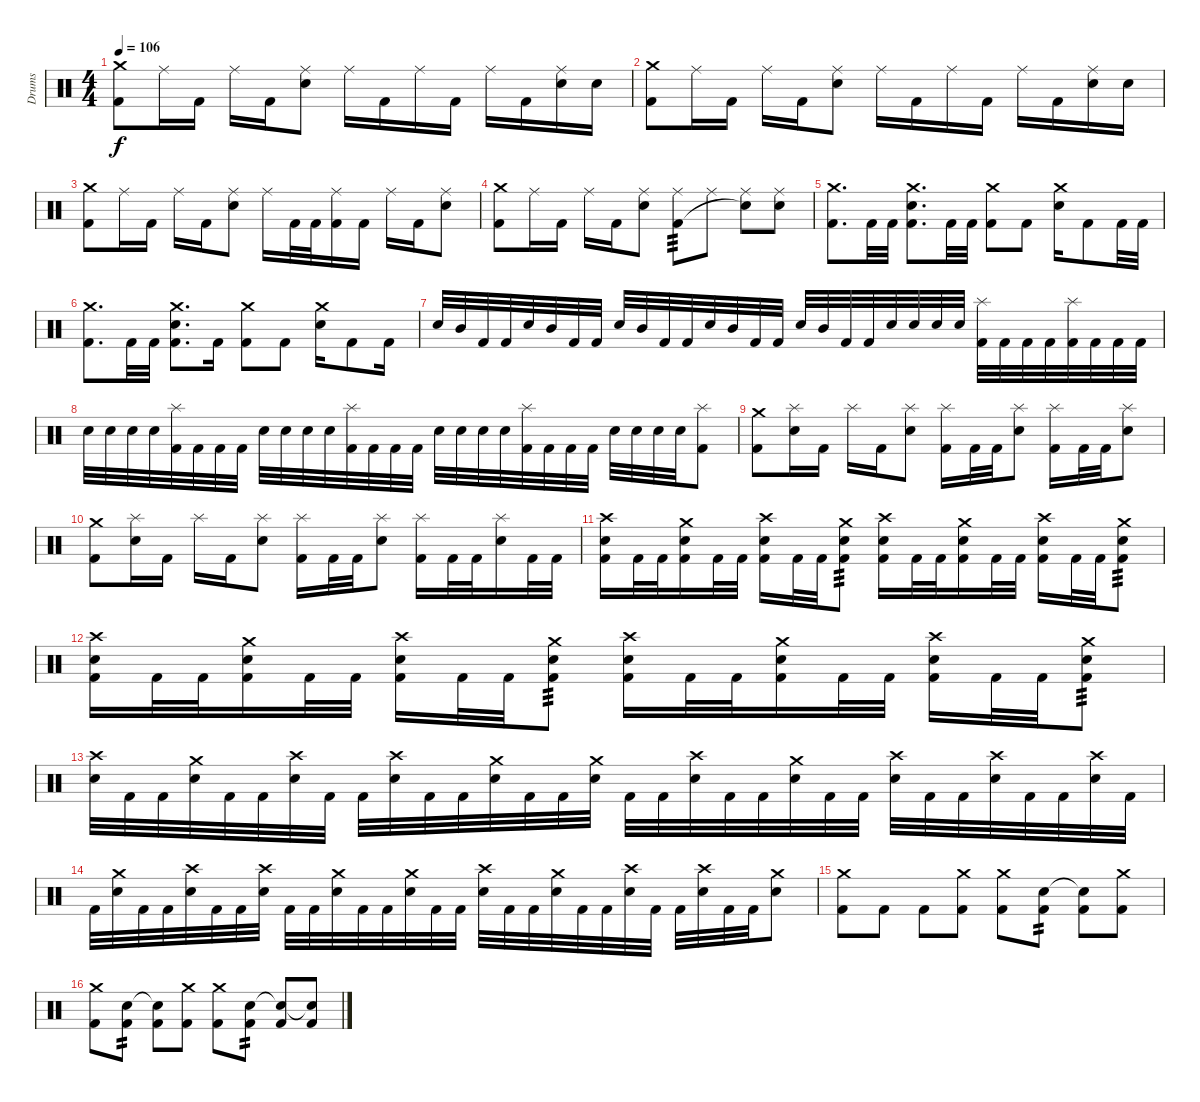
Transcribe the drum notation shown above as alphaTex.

\track ("Drums" "Drums") {instrument percussion}
\staff {score}
\articulation defaults
\ts (4 4)
\tempo 106
\clef neutral
\ks c
("Crash medium (hit)" "Kick (hit) 2").8{dy f} "Ride (middle)".16 "Kick (hit) 2".16 "Ride (middle)".16 "Kick (hit) 2".16 ("Ride (middle)" "Snare (hit) 2").8 "Ride (middle)".16 "Kick (hit) 2".16 "Ride (middle)".16 "Kick (hit) 2".16 "Ride (middle)".16 "Kick (hit) 2".16 ("Ride (middle)" "Snare (hit) 2").16 "Snare (hit) 2".16 |
("Crash medium (hit)" "Kick (hit) 2").8 "Ride (middle)".16 "Kick (hit) 2".16 "Ride (middle)".16 "Kick (hit) 2".16 ("Ride (middle)" "Snare (hit) 2").8 "Ride (middle)".16 "Kick (hit) 2".16 "Ride (middle)".16 "Kick (hit) 2".16 "Ride (middle)".16 "Kick (hit) 2".16 ("Ride (middle)" "Snare (hit) 2").16 "Snare (hit) 2".16 |
("Crash medium (hit)" "Kick (hit) 2").8 "Ride (middle)".16 "Kick (hit) 2".16 "Ride (middle)".16 "Kick (hit) 2".16 ("Ride (middle)" "Snare (hit) 2").8 "Ride (middle)".16 "Kick (hit) 2".32 "Kick (hit) 2".32 ("Ride (middle)" "Kick (hit) 2").16 "Kick (hit) 2".16 "Ride (middle)".16 "Kick (hit) 2".16 ("Ride (middle)" "Snare (hit) 2").8 |
("Crash medium (hit)" "Kick (hit) 2").8 "Ride (middle)".16 "Kick (hit) 2".16 "Ride (middle)".16 "Kick (hit) 2".16 ("Ride (middle)" "Snare (hit) 2").8 ("Ride (middle)" "Kick (hit) 2").8{tp 3} "Ride (middle)".8 ("Ride (middle)" "Snare (hit)"{t}).8 ("Ride (middle)" "Snare (hit) 2").8 |
("Crash medium (hit)" "Kick (hit) 2").8{d} "Kick (hit) 2".32 "Kick (hit) 2".32 ("Crash medium (hit)" "Snare (hit) 2" "Kick (hit) 2").8{d} "Kick (hit) 2".32 "Kick (hit) 2".32 ("Crash medium (hit)" "Kick (hit) 2").8 "Kick (hit) 2".8 ("Crash medium (hit)" "Snare (hit) 2").16 "Kick (hit) 2".8 "Kick (hit) 2".32 "Kick (hit) 2".32 |
("Crash medium (hit)" "Kick (hit) 2").8{d} "Kick (hit) 2".32 "Kick (hit) 2".32 ("Crash medium (hit)" "Snare (hit) 2" "Kick (hit) 2").8{d} "Kick (hit) 2".16 ("Crash medium (hit)" "Kick (hit) 2").8 "Kick (hit) 2".8 ("Crash medium (hit)" "Snare (hit) 2").16 "Kick (hit) 2".8 "Kick (hit) 2".16 |
"Snare (hit) 2".32 "Mid Tom (hit)".32 "Kick (hit) 2".32 "Kick (hit) 2".32 "Snare (hit) 2".32 "Mid Tom (hit)".32 "Kick (hit) 2".32 "Kick (hit) 2".32 "Snare (hit) 2".32 "Mid Tom (hit)".32 "Kick (hit) 2".32 "Kick (hit) 2".32 "Snare (hit) 2".32 "Mid Tom (hit)".32 "Kick (hit) 2".32 "Kick (hit) 2".32 "Snare (hit) 2".32 "Mid Tom (hit)".32 "Kick (hit) 2".32 "Kick (hit) 2".32 "Snare (hit) 2".32 "Snare (hit) 2".32 "Snare (hit) 2".32 "Snare (hit) 2".32 ("Splash (hit)" "Kick (hit) 2").32 "Kick (hit) 2".32 "Kick (hit) 2".32 "Kick (hit) 2".32 ("Splash (hit)" "Kick (hit) 2").32 "Kick (hit) 2".32 "Kick (hit) 2".32 "Kick (hit) 2".32 |
"Snare (hit) 2".32 "Snare (hit) 2".32 "Snare (hit) 2".32 "Snare (hit) 2".32 ("Splash (hit)" "Kick (hit) 2").32 "Kick (hit) 2".32 "Kick (hit) 2".32 "Kick (hit) 2".32 "Snare (hit) 2".32 "Snare (hit) 2".32 "Snare (hit) 2".32 "Snare (hit) 2".32 ("Splash (hit)" "Kick (hit) 2").32 "Kick (hit) 2".32 "Kick (hit) 2".32 "Kick (hit) 2".32 "Snare (hit) 2".32 "Snare (hit) 2".32 "Snare (hit) 2".32 "Snare (hit) 2".32 ("Splash (hit)" "Kick (hit) 2").32 "Kick (hit) 2".32 "Kick (hit) 2".32 "Kick (hit) 2".32 "Snare (hit) 2".32 "Snare (hit) 2".32 "Snare (hit) 2".32 "Snare (hit) 2".32 ("Splash (hit)" "Kick (hit) 2").8 |
("Crash medium (hit)" "Kick (hit) 2").8 ("Splash (hit)" "Snare (hit) 2").16 "Kick (hit) 2".16 "Splash (hit)".16 "Kick (hit) 2".16 ("Splash (hit)" "Snare (hit) 2").8 ("Splash (hit)" "Kick (hit) 2").16 "Kick (hit) 2".32 "Kick (hit) 2".32 ("Splash (hit)" "Snare (hit) 2").8 ("Splash (hit)" "Kick (hit) 2").16 "Kick (hit) 2".32 "Kick (hit) 2".32 ("Splash (hit)" "Snare (hit) 2").8 |
("Crash medium (hit)" "Kick (hit) 2").8 ("Splash (hit)" "Snare (hit) 2").16 "Kick (hit) 2".16 "Splash (hit)".16 "Kick (hit) 2".16 ("Splash (hit)" "Snare (hit) 2").8 ("Splash (hit)" "Kick (hit) 2").16 "Kick (hit) 2".32 "Kick (hit) 2".32 ("Splash (hit)" "Snare (hit) 2").8 ("Splash (hit)" "Kick (hit) 2").16 "Kick (hit) 2".32 "Kick (hit) 2".32 ("Splash (hit)" "Snare (hit) 2").16 "Kick (hit) 2".32 "Kick (hit) 2".32 |
("Crash high (hit)" "Snare (hit) 2" "Kick (hit) 2").16 "Kick (hit) 2".32 "Kick (hit) 2".32 ("Crash medium (hit)" "Snare (hit) 2" "Kick (hit) 2").16 "Kick (hit) 2".32 "Kick (hit) 2".32 ("Crash high (hit)" "Snare (hit) 2" "Kick (hit) 2").16 "Kick (hit) 2".32 "Kick (hit) 2".32 ("Crash medium (hit)" "Snare (hit) 2" "Kick (hit) 2").8{tp 3} ("Crash high (hit)" "Snare (hit) 2" "Kick (hit) 2").16 "Kick (hit) 2".32 "Kick (hit) 2".32 ("Crash medium (hit)" "Snare (hit) 2" "Kick (hit) 2").16 "Kick (hit) 2".32 "Kick (hit) 2".32 ("Crash high (hit)" "Snare (hit) 2" "Kick (hit) 2").16 "Kick (hit) 2".32 "Kick (hit) 2".32 ("Crash medium (hit)" "Snare (hit) 2" "Kick (hit) 2").8{tp 3} |
("Crash high (hit)" "Snare (hit) 2" "Kick (hit) 2").16 "Kick (hit) 2".32 "Kick (hit) 2".32 ("Crash medium (hit)" "Snare (hit) 2" "Kick (hit) 2").16 "Kick (hit) 2".32 "Kick (hit) 2".32 ("Crash high (hit)" "Snare (hit) 2" "Kick (hit) 2").16 "Kick (hit) 2".32 "Kick (hit) 2".32 ("Crash medium (hit)" "Snare (hit) 2" "Kick (hit) 2").8{tp 3} ("Crash high (hit)" "Snare (hit) 2" "Kick (hit) 2").16 "Kick (hit) 2".32 "Kick (hit) 2".32 ("Crash medium (hit)" "Snare (hit) 2" "Kick (hit) 2").16 "Kick (hit) 2".32 "Kick (hit) 2".32 ("Crash high (hit)" "Snare (hit) 2" "Kick (hit) 2").16 "Kick (hit) 2".32 "Kick (hit) 2".32 ("Crash medium (hit)" "Snare (hit) 2" "Kick (hit) 2").8{tp 3} |
("Crash high (hit)" "Snare (hit) 2").32 "Kick (hit) 2".32 "Kick (hit) 2".32 ("Crash medium (hit)" "Snare (hit) 2").32 "Kick (hit) 2".32 "Kick (hit) 2".32 ("Crash high (hit)" "Snare (hit) 2").32 "Kick (hit) 2".32 "Kick (hit) 2".32 ("Crash high (hit)" "Snare (hit) 2").32 "Kick (hit) 2".32 "Kick (hit) 2".32 ("Crash medium (hit)" "Snare (hit) 2").32 "Kick (hit) 2".32 "Kick (hit) 2".32 ("Crash medium (hit)" "Snare (hit) 2").32 "Kick (hit) 2".32 "Kick (hit) 2".32 ("Crash high (hit)" "Snare (hit) 2").32 "Kick (hit) 2".32 "Kick (hit) 2".32 ("Crash medium (hit)" "Snare (hit) 2").32 "Kick (hit) 2".32 "Kick (hit) 2".32 ("Crash high (hit)" "Snare (hit) 2").32 "Kick (hit) 2".32 "Kick (hit) 2".32 ("Crash high (hit)" "Snare (hit) 2").32 "Kick (hit) 2".32 "Kick (hit) 2".32 ("Crash high (hit)" "Snare (hit) 2").32 "Kick (hit) 2".32 |
"Kick (hit) 2".32 ("Crash medium (hit)" "Snare (hit) 2").32 "Kick (hit) 2".32 "Kick (hit) 2".32 ("Crash high (hit)" "Snare (hit) 2").32 "Kick (hit) 2".32 "Kick (hit) 2".32 ("Crash high (hit)" "Snare (hit) 2").32 "Kick (hit) 2".32 "Kick (hit) 2".32 ("Crash medium (hit)" "Snare (hit) 2").32 "Kick (hit) 2".32 "Kick (hit) 2".32 ("Crash medium (hit)" "Snare (hit) 2").32 "Kick (hit) 2".32 "Kick (hit) 2".32 ("Crash high (hit)" "Snare (hit) 2").32 "Kick (hit) 2".32 "Kick (hit) 2".32 ("Crash medium (hit)" "Snare (hit) 2").32 "Kick (hit) 2".32 "Kick (hit) 2".32 ("Crash high (hit)" "Snare (hit) 2").32 "Kick (hit) 2".32 "Kick (hit) 2".32 ("Crash high (hit)" "Snare (hit) 2").32 "Kick (hit) 2".32 "Kick (hit) 2".32 ("Crash medium (hit)" "Snare (hit) 2").8 |
("Crash medium (hit)" "Kick (hit) 2").8 "Kick (hit) 2".8 "Kick (hit) 2".8 ("Crash medium (hit)" "Kick (hit) 2").8 ("Crash medium (hit)" "Kick (hit) 2").8 ("Snare (hit) 2" "Kick (hit) 2").8{tp 2} ("Snare (hit) 2"{t} "Kick (hit) 2").8 ("Crash medium (hit)" "Kick (hit) 2").8 |
("Crash medium (hit)" "Kick (hit) 2").8 ("Snare (hit) 2" "Kick (hit) 2").8{tp 2} ("Snare (hit) 2"{t} "Kick (hit) 2").8 ("Crash medium (hit)" "Kick (hit) 2").8 ("Crash medium (hit)" "Kick (hit) 2").8 ("Snare (hit) 2" "Kick (hit) 2").8{tp 2} ("Snare (hit) 2"{t} "Kick (hit) 2").8 ("Snare (hit)"{t} "Kick (hit) 2").8
